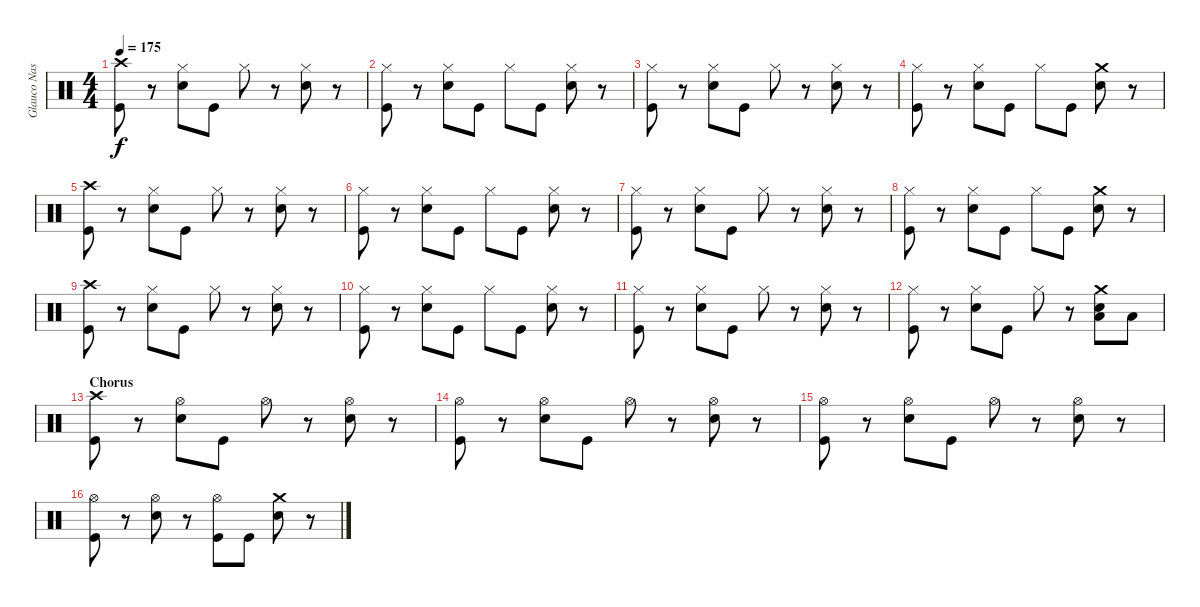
\track ("Glauco Nastácia" "Glauco Nas") {instrument percussion}
\staff {score}
\articulation defaults
\ts (4 4)
\tempo 175
\clef neutral
\ks c
("Crash high (hit)" "Kick (hit)").8{dy f} r.8 ("Hi-Hat (closed)" "Electric Snare (hit)").8 "Kick (hit)".8 "Hi-Hat (closed)".8 r.8 ("Hi-Hat (closed)" "Electric Snare (hit)").8 r.8 |
("Hi-Hat (closed)" "Kick (hit)").8 r.8 ("Hi-Hat (closed)" "Electric Snare (hit)").8 "Kick (hit)".8 "Hi-Hat (closed)".8 "Kick (hit)".8 ("Hi-Hat (closed)" "Electric Snare (hit)").8 r.8 |
("Hi-Hat (closed)" "Kick (hit)").8 r.8 ("Hi-Hat (closed)" "Electric Snare (hit)").8 "Kick (hit)".8 "Hi-Hat (closed)".8 r.8 ("Hi-Hat (closed)" "Electric Snare (hit)").8 r.8 |
("Hi-Hat (closed)" "Kick (hit)").8 r.8 ("Hi-Hat (closed)" "Electric Snare (hit)").8 "Kick (hit)".8 "Hi-Hat (closed)".8 "Kick (hit)".8 ("Crash medium (hit)" "Electric Snare (hit)").8 r.8 |
("Crash high (hit)" "Kick (hit)").8 r.8 ("Hi-Hat (closed)" "Electric Snare (hit)").8 "Kick (hit)".8 "Hi-Hat (closed)".8 r.8 ("Hi-Hat (closed)" "Electric Snare (hit)").8 r.8 |
("Hi-Hat (closed)" "Kick (hit)").8 r.8 ("Hi-Hat (closed)" "Electric Snare (hit)").8 "Kick (hit)".8 "Hi-Hat (closed)".8 "Kick (hit)".8 ("Hi-Hat (closed)" "Electric Snare (hit)").8 r.8 |
("Hi-Hat (closed)" "Kick (hit)").8 r.8 ("Hi-Hat (closed)" "Electric Snare (hit)").8 "Kick (hit)".8 "Hi-Hat (closed)".8 r.8 ("Hi-Hat (closed)" "Electric Snare (hit)").8 r.8 |
("Hi-Hat (closed)" "Kick (hit)").8 r.8 ("Hi-Hat (closed)" "Electric Snare (hit)").8 "Kick (hit)".8 "Hi-Hat (closed)".8 "Kick (hit)".8 ("Crash medium (hit)" "Electric Snare (hit)").8 r.8 |
("Crash high (hit)" "Kick (hit)").8 r.8 ("Hi-Hat (closed)" "Electric Snare (hit)").8 "Kick (hit)".8 "Hi-Hat (closed)".8 r.8 ("Hi-Hat (closed)" "Electric Snare (hit)").8 r.8 |
("Hi-Hat (closed)" "Kick (hit)").8 r.8 ("Hi-Hat (closed)" "Electric Snare (hit)").8 "Kick (hit)".8 "Hi-Hat (closed)".8 "Kick (hit)".8 ("Hi-Hat (closed)" "Electric Snare (hit)").8 r.8 |
("Hi-Hat (closed)" "Kick (hit)").8 r.8 ("Hi-Hat (closed)" "Electric Snare (hit)").8 "Kick (hit)".8 "Hi-Hat (closed)".8 r.8 ("Hi-Hat (closed)" "Electric Snare (hit)").8 r.8 |
("Hi-Hat (closed)" "Kick (hit)").8 r.8 ("Hi-Hat (closed)" "Electric Snare (hit)").8 "Kick (hit)".8 "Hi-Hat (closed)".8 r.8 ("Crash medium (hit)" "Low Tom (hit)" "Electric Snare (hit)").8 "Low Floor Tom (hit)".8 |
\section ("" "Chorus")
("Crash high (hit)" "Kick (hit)").8 r.8 ("Hi-Hat (open)" "Electric Snare (hit)").8 "Kick (hit)".8 "Hi-Hat (open)".8 r.8 ("Hi-Hat (open)" "Electric Snare (hit)").8 r.8 |
("Hi-Hat (open)" "Kick (hit)").8 r.8 ("Hi-Hat (open)" "Electric Snare (hit)").8 "Kick (hit)".8 "Hi-Hat (open)".8 r.8 ("Hi-Hat (open)" "Electric Snare (hit)").8 r.8 |
("Hi-Hat (open)" "Kick (hit)").8 r.8 ("Hi-Hat (open)" "Electric Snare (hit)").8 "Kick (hit)".8 "Hi-Hat (open)".8 r.8 ("Hi-Hat (open)" "Electric Snare (hit)").8 r.8 |
("Hi-Hat (open)" "Kick (hit)").8 r.8 ("Hi-Hat (open)" "Electric Snare (hit)").8 r.8 ("Hi-Hat (open)" "Kick (hit)").8 "Kick (hit)".8 ("Crash medium (hit)" "Electric Snare (hit)").8 r.8
